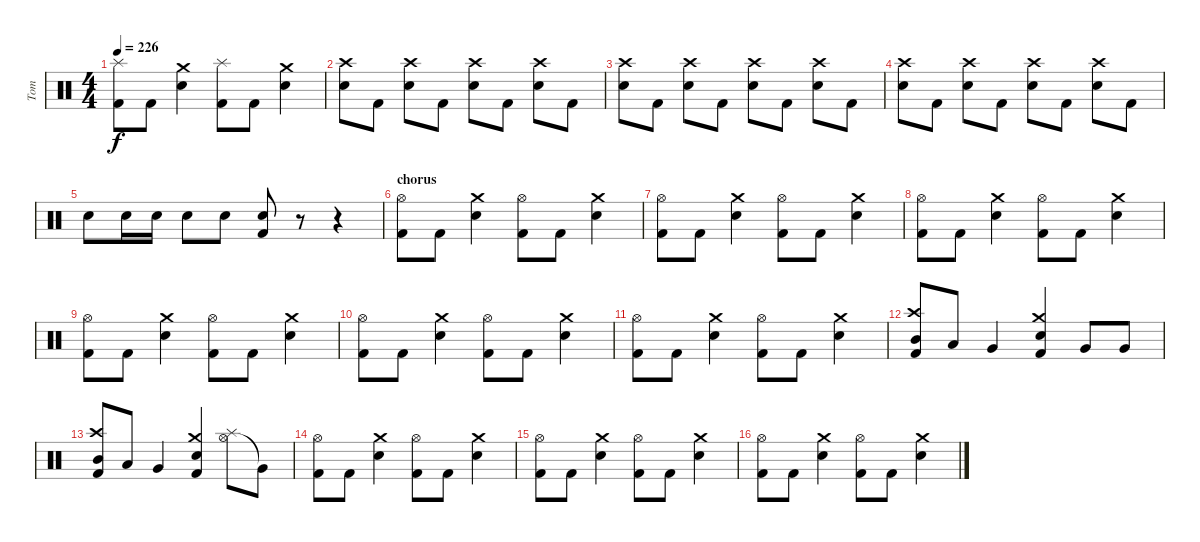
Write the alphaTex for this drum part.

\track ("Tom" "Tom") {instrument percussion}
\staff {score}
\articulation defaults
\ts (4 4)
\tempo 226
\clef neutral
\ks c
("Splash (hit)" "Kick (hit) 2").8{dy f} "Kick (hit) 2".8 ("Crash medium (hit)" "Electric Snare (hit)").4 ("Splash (hit)" "Kick (hit) 2").8 "Kick (hit) 2".8 ("Crash medium (hit)" "Electric Snare (hit)").4 |
("Crash high (hit)" "Electric Snare (hit)").8 "Kick (hit) 2".8 ("Crash high (hit)" "Electric Snare (hit)").8 "Kick (hit) 2".8 ("Crash high (hit)" "Electric Snare (hit)").8 "Kick (hit) 2".8 ("Crash high (hit)" "Electric Snare (hit)").8 "Kick (hit) 2".8 |
("Crash high (hit)" "Electric Snare (hit)").8 "Kick (hit) 2".8 ("Crash high (hit)" "Electric Snare (hit)").8 "Kick (hit) 2".8 ("Crash high (hit)" "Electric Snare (hit)").8 "Kick (hit) 2".8 ("Crash high (hit)" "Electric Snare (hit)").8 "Kick (hit) 2".8 |
("Crash high (hit)" "Electric Snare (hit)").8 "Kick (hit) 2".8 ("Crash high (hit)" "Electric Snare (hit)").8 "Kick (hit) 2".8 ("Crash high (hit)" "Electric Snare (hit)").8 "Kick (hit) 2".8 ("Crash high (hit)" "Electric Snare (hit)").8 "Kick (hit) 2".8 |
"Electric Snare (hit)".8 "Electric Snare (hit)".16 "Electric Snare (hit)".16 "Electric Snare (hit)".8 "Electric Snare (hit)".8 ("Electric Snare (hit)" "Kick (hit) 2").8 r.8 r.4 |
\section ("" "chorus")
("Hi-Hat (open)" "Kick (hit) 2").8 "Kick (hit) 2".8 ("Crash medium (hit)" "Electric Snare (hit)").4 ("Hi-Hat (open)" "Kick (hit) 2").8 "Kick (hit) 2".8 ("Crash medium (hit)" "Electric Snare (hit)").4 |
("Hi-Hat (open)" "Kick (hit) 2").8 "Kick (hit) 2".8 ("Crash medium (hit)" "Electric Snare (hit)").4 ("Hi-Hat (open)" "Kick (hit) 2").8 "Kick (hit) 2".8 ("Crash medium (hit)" "Electric Snare (hit)").4 |
("Hi-Hat (open)" "Kick (hit) 2").8 "Kick (hit) 2".8 ("Crash medium (hit)" "Electric Snare (hit)").4 ("Hi-Hat (open)" "Kick (hit) 2").8 "Kick (hit) 2".8 ("Crash medium (hit)" "Electric Snare (hit)").4 |
("Hi-Hat (open)" "Kick (hit) 2").8 "Kick (hit) 2".8 ("Crash medium (hit)" "Electric Snare (hit)").4 ("Hi-Hat (open)" "Kick (hit) 2").8 "Kick (hit) 2".8 ("Crash medium (hit)" "Electric Snare (hit)").4 |
("Hi-Hat (open)" "Kick (hit) 2").8 "Kick (hit) 2".8 ("Crash medium (hit)" "Electric Snare (hit)").4 ("Hi-Hat (open)" "Kick (hit) 2").8 "Kick (hit) 2".8 ("Crash medium (hit)" "Electric Snare (hit)").4 |
("Hi-Hat (open)" "Kick (hit) 2").8 "Kick (hit) 2".8 ("Crash medium (hit)" "Electric Snare (hit)").4 ("Hi-Hat (open)" "Kick (hit) 2").8 "Kick (hit) 2".8 ("Crash medium (hit)" "Electric Snare (hit)").4 |
("Crash high (hit)" "Mid Tom (hit)" "Kick (hit) 2").8 "Low Tom (hit)".8 "Very Low Tom (hit)".4 ("Crash medium (hit)" "Electric Snare (hit)" "Kick (hit) 2").4 "Very Low Tom (hit)".8 "Very Low Tom (hit)".8 |
("Crash high (hit)" "Mid Tom (hit)" "Kick (hit) 2").8 "Low Tom (hit)".8 "Very Low Tom (hit)".4 ("Crash medium (hit)" "Electric Snare (hit)" "Kick (hit) 2").4 ("Hi-Hat (open)" "Splash (hit)").8 "Very Low Tom (hit)"{t}.8 |
("Hi-Hat (open)" "Kick (hit) 2").8 "Kick (hit) 2".8 ("Crash medium (hit)" "Electric Snare (hit)").4 ("Hi-Hat (open)" "Kick (hit) 2").8 "Kick (hit) 2".8 ("Crash medium (hit)" "Electric Snare (hit)").4 |
("Hi-Hat (open)" "Kick (hit) 2").8 "Kick (hit) 2".8 ("Crash medium (hit)" "Electric Snare (hit)").4 ("Hi-Hat (open)" "Kick (hit) 2").8 "Kick (hit) 2".8 ("Crash medium (hit)" "Electric Snare (hit)").4 |
("Hi-Hat (open)" "Kick (hit) 2").8 "Kick (hit) 2".8 ("Crash medium (hit)" "Electric Snare (hit)").4 ("Hi-Hat (open)" "Kick (hit) 2").8 "Kick (hit) 2".8 ("Crash medium (hit)" "Electric Snare (hit)").4
